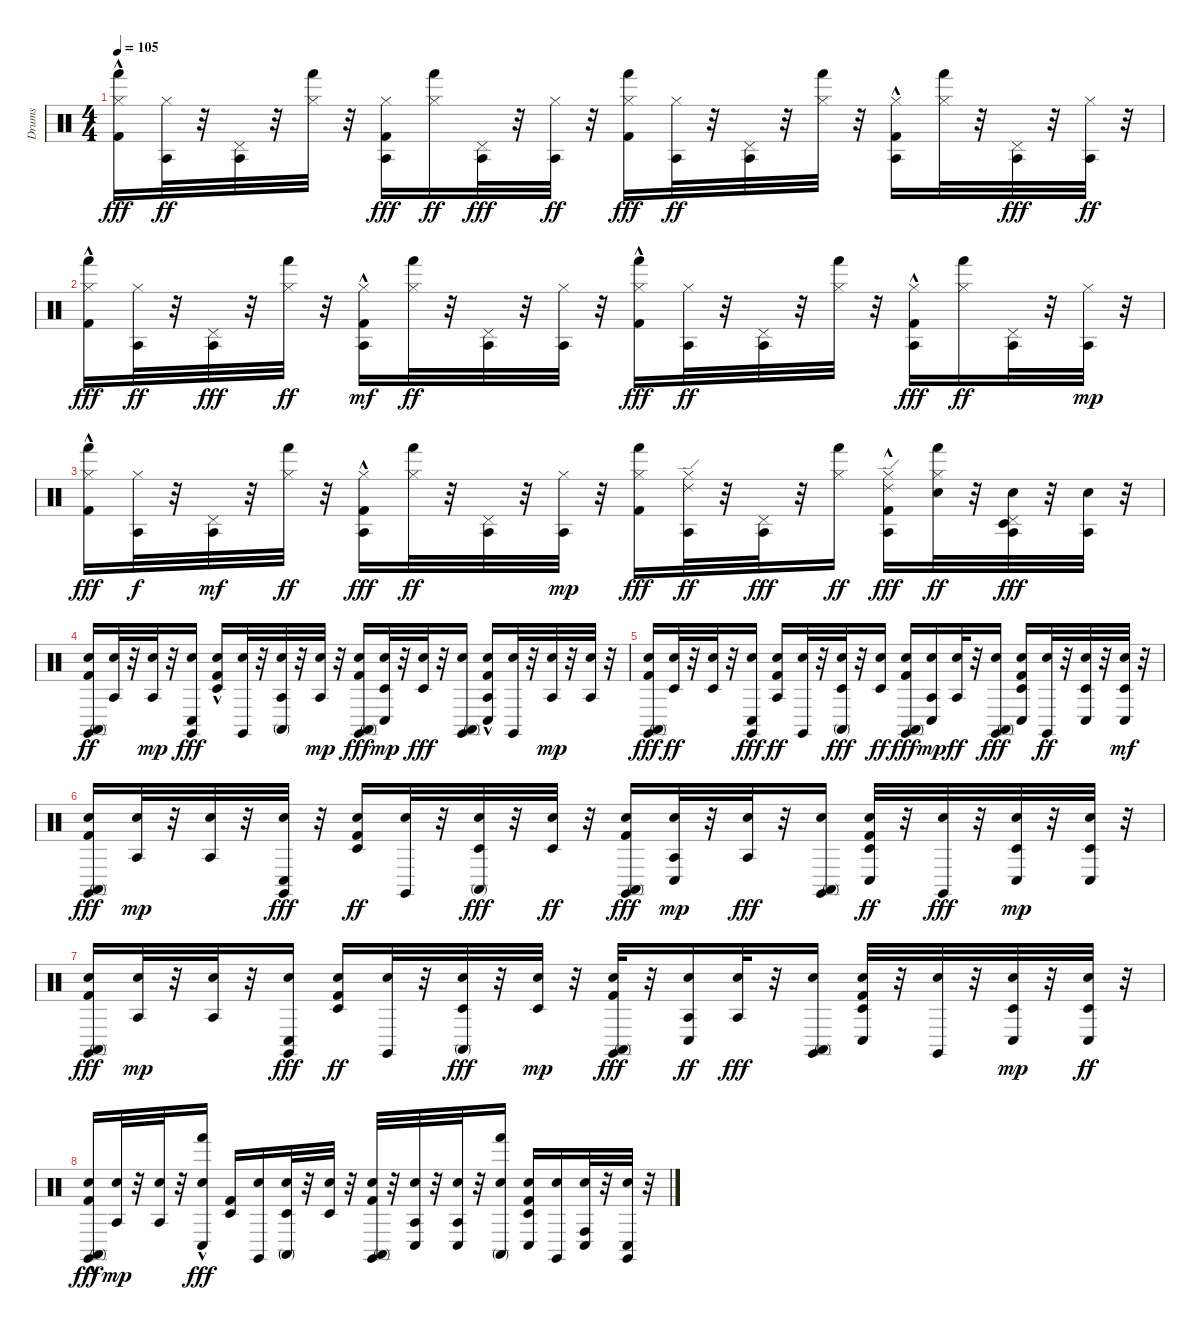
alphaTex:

\track ("Drums" "Drums") {instrument percussion}
\staff {score}
\articulation defaults
\ts (4 4)
\tempo 105
\clef neutral
\ks c
("Hand (hit)" "Hi-Hat (closed)" "Kick (hit) 2"{hac}).16{dy fff} ("Agogo tow (hit)" "Hi-Hat (closed)").32{dy ff} r.32 ("Agogo tow (hit)" "Pedal Hi-Hat (hit)").32 r.32 ("Hi-Hat (closed)" "Hand (hit)").32 r.32 ("Agogo tow (hit)" "Hi-Hat (closed)" "Kick (hit) 2").16{dy fff} ("Hand (hit)" "Hi-Hat (closed)").16{dy ff} ("Agogo tow (hit)" "Pedal Hi-Hat (hit)").32{dy fff} r.32 ("Agogo tow (hit)" "Hi-Hat (closed)").32{dy ff} r.32 ("Hand (hit)" "Kick (hit) 2" "Hi-Hat (closed)").16{dy fff} ("Agogo tow (hit)" "Hi-Hat (closed)").32{dy ff} r.32 ("Agogo tow (hit)" "Pedal Hi-Hat (hit)").32 r.32 ("Hi-Hat (closed)" "Hand (hit)").32 r.32 ("Agogo tow (hit)" "Kick (hit) 2"{hac} "Hi-Hat (closed)").16 ("Hand (hit)" "Hi-Hat (closed)").32 r.32 ("Agogo tow (hit)" "Pedal Hi-Hat (hit)").32{dy fff} r.32 ("Agogo tow (hit)" "Hi-Hat (closed)").32{dy ff} r.32 |
("Hand (hit)" "Hi-Hat (closed)" "Kick (hit) 2"{hac}).16{dy fff} ("Agogo tow (hit)" "Hi-Hat (closed)").32{dy ff} r.32 ("Agogo tow (hit)" "Pedal Hi-Hat (hit)").32{dy fff} r.32 ("Hi-Hat (closed)" "Hand (hit)").32{dy ff} r.32 ("Hi-Hat (closed)" "Kick (hit) 2"{hac} "Agogo tow (hit)").16{dy mf} ("Hi-Hat (closed)" "Hand (hit)").32{dy ff} r.32 ("Agogo tow (hit)" "Pedal Hi-Hat (hit)").32 r.32 ("Agogo tow (hit)" "Hi-Hat (closed)").32 r.32 ("Hand (hit)" "Hi-Hat (closed)" "Kick (hit) 2"{hac}).16{dy fff} ("Agogo tow (hit)" "Hi-Hat (closed)").32{dy ff} r.32 ("Agogo tow (hit)" "Pedal Hi-Hat (hit)").32 r.32 ("Hand (hit)" "Hi-Hat (closed)").32 r.32 ("Hi-Hat (closed)" "Kick (hit) 2"{hac} "Agogo tow (hit)").16{dy fff} ("Hand (hit)" "Hi-Hat (closed)").16{dy ff} ("Agogo tow (hit)" "Pedal Hi-Hat (hit)").32 r.32 ("Agogo tow (hit)" "Hi-Hat (closed)").32{dy mp} r.32 |
("Hand (hit)" "Hi-Hat (closed)" "Kick (hit) 2"{hac}).16{dy fff} ("Agogo tow (hit)" "Hi-Hat (closed)").32{dy f} r.32 ("Pedal Hi-Hat (hit)" "Agogo tow (hit)").32{dy mf} r.32 ("Hi-Hat (closed)" "Hand (hit)").32{dy ff} r.32 ("Agogo tow (hit)" "Hi-Hat (closed)" "Kick (hit) 2"{hac}).16{dy fff} ("Hi-Hat (closed)" "Hand (hit)").32{dy ff} r.32 ("Agogo tow (hit)" "Pedal Hi-Hat (hit)").32 r.32 ("Agogo tow (hit)" "Hi-Hat (closed)").32{dy mp} r.32 ("Hand (hit)" "Hi-Hat (closed)" "Kick (hit) 2").16{dy fff} ("Ride (edge) 2" "Agogo tow (hit)" "Hi-Hat (closed)").32{dy ff} r.32 ("Pedal Hi-Hat (hit)" "Agogo tow (hit)").32{dy fff} r.32 ("Hand (hit)" "Hi-Hat (closed)").16{dy ff} ("Ride (edge) 2" "Agogo tow (hit)" "Hi-Hat (closed)" "Kick (hit) 2"{hac}).16{dy fff} ("Hand (hit)" "Snare (hit) 2" "Hi-Hat (closed)").32{dy ff} r.32 ("Timbale low (hit)" "Agogo tow (hit)" "Snare (hit) 2" "Pedal Hi-Hat (hit)").32{dy fff} r.32 ("Agogo tow (hit)" "Snare (hit) 2").32 r.32 |
("Conga high (mute)" "Snare (hit) 2" "Kick (hit) 2" "Claves (hit)").16{dy ff} ("Snare (hit) 2" "Agogo tow (hit)").32 r.32 ("Snare (hit) 2" "Agogo tow (hit)").32{dy mp} r.32 ("Snare (hit) 2" "Conga low (hit)" "Claves (hit)").16{dy fff} ("Timbale low (hit)" "Snare (hit) 2" "Kick (hit) 2"{hac}).16 ("Snare (hit) 2" "Claves (hit)").32 r.32 ("Conga high (mute)" "Agogo tow (hit)" "Snare (hit) 2").32 r.32 ("Agogo tow (hit)" "Snare (hit) 2").32{dy mp} r.32 ("Snare (hit) 2" "Kick (hit) 2" "Conga high (mute)" "Claves (hit)").16{dy fff} ("Snare (hit) 2" "Timbale low (hit)" "Conga low (hit)").32{dy mp} r.32 ("Timbale low (hit)" "Snare (hit) 2").32{dy fff} r.32 ("Conga high (mute)" "Snare (hit) 2" "Claves (hit)").16 ("Conga low (hit)"{hac} "Agogo tow (hit)" "Snare (hit) 2" "Kick (hit) 2").16 ("Snare (hit) 2" "Claves (hit)").32 r.32 ("Agogo tow (hit)" "Snare (hit) 2").32{dy mp} r.32 ("Agogo tow (hit)" "Snare (hit) 2").32 r.32 |
("Conga high (mute)" "Snare (hit) 2" "Kick (hit) 2" "Claves (hit)").16{dy fff} ("Snare (hit) 2" "Timbale low (hit)").32{dy ff} r.32 ("Snare (hit) 2" "Timbale low (hit)").32 r.32 ("Conga low (hit)" "Snare (hit) 2" "Claves (hit)").16{dy fff} ("Snare (hit) 2" "Kick (hit) 2" "Agogo tow (hit)").16{dy ff} ("Snare (hit) 2" "Claves (hit)").32 r.32 ("Conga high (mute)" "Timbale low (hit)" "Snare (hit) 2").32{dy fff} r.32 ("Snare (hit) 2" "Timbale low (hit)").16{dy ff} ("Conga high (mute)" "Snare (hit) 2" "Kick (hit) 2" "Claves (hit)").16{dy fff} ("Conga low (hit)" "Agogo tow (hit)" "Snare (hit) 2").16{dy mp} ("Snare (hit) 2" "Agogo tow (hit)").32{dy ff} r.32 ("Conga high (mute)" "Snare (hit) 2" "Claves (hit)").16{dy fff} ("Timbale low (hit)" "Snare (hit) 2" "Kick (hit) 2" "Conga low (hit)").16 ("Snare (hit) 2" "Claves (hit)").32{dy ff} r.32 ("Timbale low (hit)" "Snare (hit) 2" "Conga low (hit)").32 r.32 ("Timbale low (hit)" "Snare (hit) 2" "Conga low (hit)").32{dy mf} r.32 |
("Kick (hit) 2" "Snare (hit) 2" "Conga high (mute)" "Claves (hit)").16{dy fff} ("Agogo tow (hit)" "Snare (hit) 2").32{dy mp} r.32 ("Agogo tow (hit)" "Snare (hit) 2").32 r.32 ("Conga low (hit)" "Snare (hit) 2" "Claves (hit)").32{dy fff} r.32 ("Snare (hit) 2" "Kick (hit) 2" "Timbale low (hit)").16{dy ff} ("Snare (hit) 2" "Claves (hit)").32 r.32 ("Conga high (mute)" "Timbale low (hit)" "Snare (hit) 2").32{dy fff} r.32 ("Snare (hit) 2" "Timbale low (hit)").32{dy ff} r.32 ("Conga high (mute)" "Snare (hit) 2" "Kick (hit) 2" "Claves (hit)").16{dy fff} ("Conga low (hit)" "Agogo tow (hit)" "Snare (hit) 2").32{dy mp} r.32 ("Agogo tow (hit)" "Snare (hit) 2").32{dy fff} r.32 ("Conga high (mute)" "Snare (hit) 2" "Claves (hit)").16 ("Kick (hit) 2" "Snare (hit) 2" "Timbale low (hit)" "Conga low (hit)").32{dy ff} r.32 ("Snare (hit) 2" "Claves (hit)").32{dy fff} r.32 ("Timbale low (hit)" "Snare (hit) 2" "Conga low (hit)").32{dy mp} r.32 ("Conga low (hit)" "Timbale low (hit)" "Snare (hit) 2").32 r.32 |
("Kick (hit) 2" "Snare (hit) 2" "Conga high (mute)" "Claves (hit)").16{dy fff} ("Agogo tow (hit)" "Snare (hit) 2").32{dy mp} r.32 ("Agogo tow (hit)" "Snare (hit) 2").32 r.32 ("Conga low (hit)" "Snare (hit) 2" "Claves (hit)").16{dy fff} ("Snare (hit) 2" "Kick (hit) 2" "Timbale low (hit)").16{dy ff} ("Snare (hit) 2" "Claves (hit)").32 r.32 ("Conga high (mute)" "Timbale low (hit)" "Snare (hit) 2").32{dy fff} r.32 ("Timbale low (hit)" "Snare (hit) 2").32{dy mp} r.32 ("Snare (hit) 2" "Kick (hit) 2" "Conga high (mute)" "Claves (hit)").32{dy fff} r.32 ("Agogo tow (hit)" "Snare (hit) 2" "Conga low (hit)").16{dy ff} ("Agogo tow (hit)" "Snare (hit) 2").32{dy fff} r.32 ("Conga high (mute)" "Snare (hit) 2" "Claves (hit)").16 ("Timbale low (hit)" "Kick (hit) 2" "Snare (hit) 2" "Conga low (hit)").32 r.32 ("Snare (hit) 2" "Claves (hit)").32 r.32 ("Conga low (hit)" "Timbale low (hit)" "Snare (hit) 2").32{dy mp} r.32 ("Conga low (hit)" "Snare (hit) 2" "Timbale low (hit)").32{dy ff} r.32 |
("Conga high (mute)"{hac} "Snare (hit) 2" "Kick (hit) 2" "Claves (hit)").16{dy fff} ("Agogo tow (hit)" "Snare (hit) 2").32{dy mp} r.32 ("Agogo tow (hit)" "Snare (hit) 2").32 r.32 ("Conga low (hit)" "Hand (hit)" "Snare (hit) 2"{hac}).16{dy fff} ("Kick (hit) 2" "Timbale low (hit)").16 ("Snare (hit) 2" "Claves (hit)").16 ("Conga high (mute)" "Timbale low (hit)" "Snare (hit) 2").32 r.32 ("Snare (hit) 2" "Timbale low (hit)").32 r.32 ("Conga high (mute)" "Snare (hit) 2" "Kick (hit) 2" "Claves (hit)").32 r.32 ("Conga low (hit)" "Snare (hit) 2" "Agogo tow (hit)").32 r.32 ("Conga low (hit)" "Snare (hit) 2" "Agogo tow (hit)").32 r.32 ("Conga high (mute)" "Snare (hit) 2" "Hand (hit)").16 ("Snare (hit) 2" "Kick (hit) 2" "Timbale low (hit)" "Conga low (hit)").16 ("Snare (hit) 2" "Claves (hit)").16 ("Snare (hit) 2" "Conga high (hit)" "Conga low (hit)").32 r.32 ("Conga low (hit)" "Snare (hit) 2" "Claves (hit)").32 r.32
